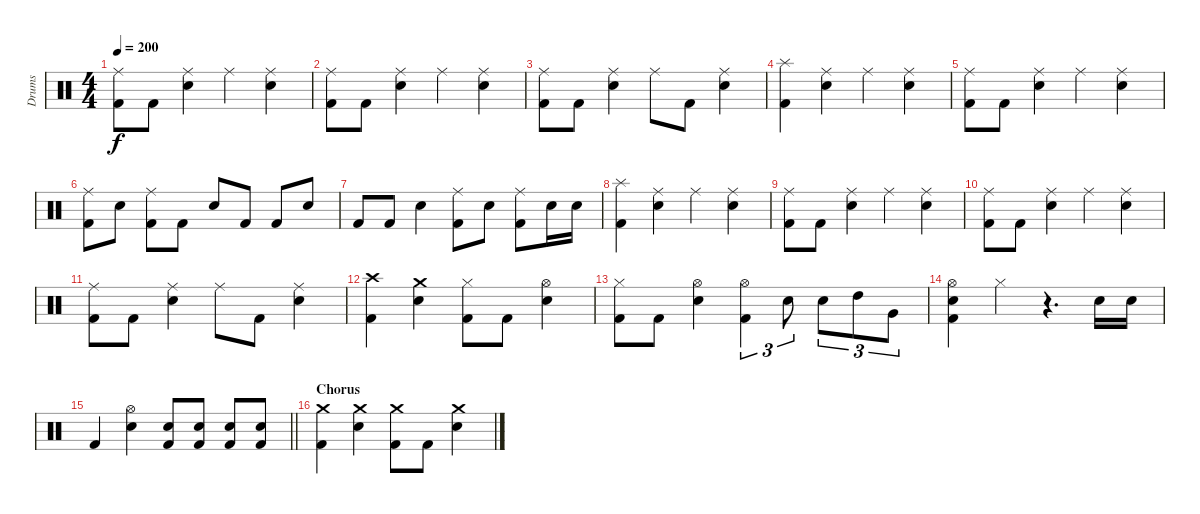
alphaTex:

\track ("Drums" "Drums") {instrument percussion}
\staff {score}
\articulation defaults
\ts (4 4)
\tempo 200
\clef neutral
\ks c
("Ride (middle)" "Kick (hit) 2").8{dy f} "Kick (hit) 2".8 ("Ride (middle)" "Snare (hit) 2").4 "Ride (middle)".4 ("Ride (middle)" "Snare (hit) 2").4 |
("Ride (middle)" "Kick (hit) 2").8 "Kick (hit) 2".8 ("Ride (middle)" "Snare (hit) 2").4 "Ride (middle)".4 ("Ride (middle)" "Snare (hit) 2").4 |
("Ride (middle)" "Kick (hit) 2").8 "Kick (hit) 2".8 ("Ride (middle)" "Snare (hit) 2").4 "Ride (middle)".8 "Kick (hit) 2".8 ("Ride (middle)" "Snare (hit) 2").4 |
("Splash (hit)" "Kick (hit) 2").4 ("Ride (middle)" "Snare (hit) 2").4 "Ride (middle)".4 ("Ride (middle)" "Snare (hit) 2").4 |
("Ride (middle)" "Kick (hit) 2").8 "Kick (hit) 2".8 ("Ride (middle)" "Snare (hit) 2").4 "Ride (middle)".4 ("Ride (middle)" "Snare (hit) 2").4 |
("Ride (middle)" "Kick (hit) 2").8 "Snare (hit) 2".8 ("Ride (middle)" "Kick (hit) 2").8 "Kick (hit) 2".8 "Snare (hit) 2".8 "Kick (hit) 2".8 "Kick (hit) 2".8 "Snare (hit) 2".8 |
"Kick (hit) 2".8 "Kick (hit) 2".8 "Snare (hit) 2".4 ("Ride (middle)" "Kick (hit) 2").8 "Snare (hit) 2".8 ("Ride (middle)" "Kick (hit) 2").8 "Snare (hit) 2".16 "Snare (hit) 2".16 |
("Splash (hit)" "Kick (hit) 2").4 ("Ride (middle)" "Snare (hit) 2").4 "Ride (middle)".4 ("Ride (middle)" "Snare (hit) 2").4 |
("Ride (middle)" "Kick (hit) 2").8 "Kick (hit) 2".8 ("Ride (middle)" "Snare (hit) 2").4 "Ride (middle)".4 ("Ride (middle)" "Snare (hit) 2").4 |
("Ride (middle)" "Kick (hit) 2").8 "Kick (hit) 2".8 ("Ride (middle)" "Snare (hit) 2").4 "Ride (middle)".4 ("Ride (middle)" "Snare (hit) 2").4 |
("Ride (middle)" "Kick (hit) 2").8 "Kick (hit) 2".8 ("Ride (middle)" "Snare (hit) 2").4 "Ride (middle)".8 "Kick (hit) 2".8 ("Ride (middle)" "Snare (hit) 2").4 |
("Crash high (hit)" "Kick (hit) 2").4 ("Crash medium (hit)" "Snare (hit) 2").4 ("Hi-Hat (closed)" "Kick (hit) 2").8 "Kick (hit) 2".8 ("Hi-Hat (open)" "Snare (hit) 2").4 |
("Hi-Hat (closed)" "Kick (hit) 2").8 "Kick (hit) 2".8 ("Hi-Hat (open)" "Snare (hit) 2").4 ("Hi-Hat (open)" "Kick (hit) 2").4{tu (3 2)} "Snare (hit) 2".8{tu (3 2)} "Snare (hit) 2".8{tu (3 2)} "High Tom (hit)".8{tu (3 2)} "Very Low Tom (hit)".8{tu (3 2)} |
("Hi-Hat (open)" "Snare (hit) 2" "Kick (hit) 2").4 "Hi-Hat (closed)".4 r.4{d} "Snare (hit) 2".16 "Snare (hit) 2".16 |
\barLineRight lightlight "Kick (hit) 2".4
("Hi-Hat (open)" "Snare (hit) 2").4 ("Snare (hit) 2" "Kick (hit) 2").8 ("Snare (hit) 2" "Kick (hit) 2").8 ("Snare (hit) 2" "Kick (hit) 2").8 ("Snare (hit) 2" "Kick (hit) 2").8 |
\section ("" "Chorus")
("Crash medium (hit)" "Kick (hit) 2").4 ("Crash medium (hit)" "Snare (hit) 2").4 ("Crash medium (hit)" "Kick (hit) 2").8 "Kick (hit) 2".8 ("Crash medium (hit)" "Snare (hit) 2").4
